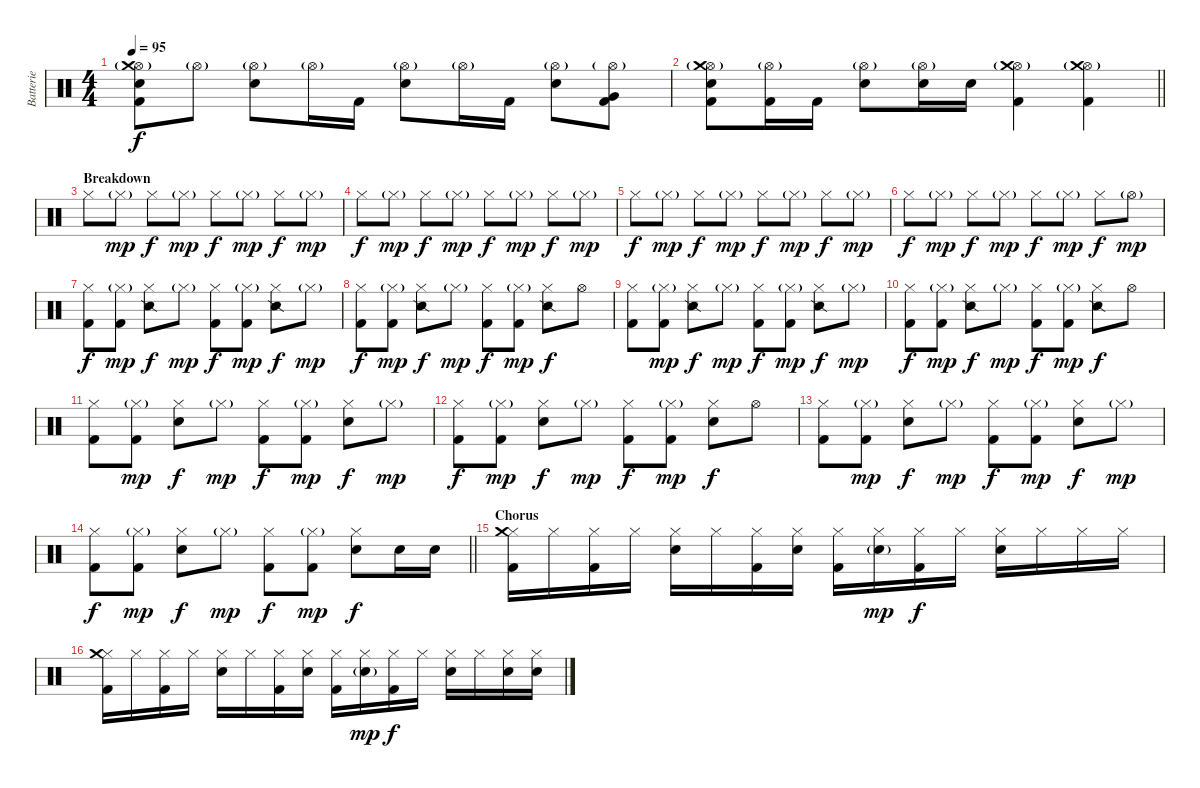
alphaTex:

\track ("Batterie" "Batterie") {instrument percussion}
\staff {score}
\articulation defaults
\ts (4 4)
\tempo 95
\clef neutral
\ks c
("Hi-Hat (open)"{g} "Crash medium (hit)" "Electric Snare (hit)" "Kick (hit) 2").8{dy f} "Hi-Hat (open)"{g}.8 ("Hi-Hat (open)"{g} "Electric Snare (hit)").8 "Hi-Hat (open)"{g}.16 "Kick (hit) 2".16 ("Hi-Hat (open)"{g} "Electric Snare (hit)").8 "Hi-Hat (open)"{g}.16 "Kick (hit) 2".16 ("Hi-Hat (open)"{g} "Electric Snare (hit)").8 ("Hi-Hat (open)"{g} "Very Low Tom (hit)" "Kick (hit) 2").8 |
\barLineRight lightlight
("Hi-Hat (open)"{g} "Crash medium (hit)" "Electric Snare (hit)" "Kick (hit) 2").8 ("Hi-Hat (open)"{g} "Kick (hit) 2").16 "Kick (hit) 2".16 ("Hi-Hat (open)"{g} "Electric Snare (hit)").8 ("Hi-Hat (open)"{g} "Electric Snare (hit)").16 "Electric Snare (hit)".16 ("Hi-Hat (open)"{g} "Crash medium (hit)" "Kick (hit) 2").4 ("Hi-Hat (open)"{g} "Crash medium (hit)" "Kick (hit) 2").4 |
\section ("" "Breakdown")
"Hi-Hat (closed)".8 "Hi-Hat (closed)"{g}.8{dy mp} "Hi-Hat (closed)".8{dy f} "Hi-Hat (closed)"{g}.8{dy mp} "Hi-Hat (closed)".8{dy f} "Hi-Hat (closed)"{g}.8{dy mp} "Hi-Hat (closed)".8{dy f} "Hi-Hat (closed)"{g}.8{dy mp} |
"Hi-Hat (closed)".8{dy f} "Hi-Hat (closed)"{g}.8{dy mp} "Hi-Hat (closed)".8{dy f} "Hi-Hat (closed)"{g}.8{dy mp} "Hi-Hat (closed)".8{dy f} "Hi-Hat (closed)"{g}.8{dy mp} "Hi-Hat (closed)".8{dy f} "Hi-Hat (closed)"{g}.8{dy mp} |
"Hi-Hat (closed)".8{dy f} "Hi-Hat (closed)"{g}.8{dy mp} "Hi-Hat (closed)".8{dy f} "Hi-Hat (closed)"{g}.8{dy mp} "Hi-Hat (closed)".8{dy f} "Hi-Hat (closed)"{g}.8{dy mp} "Hi-Hat (closed)".8{dy f} "Hi-Hat (closed)"{g}.8{dy mp} |
"Hi-Hat (closed)".8{dy f} "Hi-Hat (closed)"{g}.8{dy mp} "Hi-Hat (closed)".8{dy f} "Hi-Hat (closed)"{g}.8{dy mp} "Hi-Hat (closed)".8{dy f} "Hi-Hat (closed)"{g}.8{dy mp} "Hi-Hat (closed)".8{dy f} "Hi-Hat (open)"{g}.8{dy mp} |
("Hi-Hat (closed)" "Kick (hit) 2").8{dy f} ("Hi-Hat (closed)"{g} "Kick (hit) 2").8{dy mp} ("Hi-Hat (closed)" "Snare (side stick) 2").8{dy f} "Hi-Hat (closed)"{g}.8{dy mp} ("Hi-Hat (closed)" "Kick (hit) 2").8{dy f} ("Hi-Hat (closed)"{g} "Kick (hit) 2").8{dy mp} ("Hi-Hat (closed)" "Snare (side stick) 2").8{dy f} "Hi-Hat (closed)"{g}.8{dy mp} |
("Hi-Hat (closed)" "Kick (hit) 2").8{dy f} ("Hi-Hat (closed)"{g} "Kick (hit) 2").8{dy mp} ("Hi-Hat (closed)" "Snare (side stick) 2").8{dy f} "Hi-Hat (closed)"{g}.8{dy mp} ("Hi-Hat (closed)" "Kick (hit) 2").8{dy f} ("Hi-Hat (closed)"{g} "Kick (hit) 2").8{dy mp} ("Hi-Hat (closed)" "Snare (side stick) 2").8{dy f} "Hi-Hat (open)".8 |
("Hi-Hat (closed)" "Kick (hit) 2").8 ("Hi-Hat (closed)"{g} "Kick (hit) 2").8{dy mp} ("Hi-Hat (closed)" "Snare (side stick) 2").8{dy f} "Hi-Hat (closed)"{g}.8{dy mp} ("Hi-Hat (closed)" "Kick (hit) 2").8{dy f} ("Hi-Hat (closed)"{g} "Kick (hit) 2").8{dy mp} ("Hi-Hat (closed)" "Snare (side stick) 2").8{dy f} "Hi-Hat (closed)"{g}.8{dy mp} |
("Hi-Hat (closed)" "Kick (hit) 2").8{dy f} ("Hi-Hat (closed)"{g} "Kick (hit) 2").8{dy mp} ("Hi-Hat (closed)" "Snare (side stick) 2").8{dy f} "Hi-Hat (closed)"{g}.8{dy mp} ("Hi-Hat (closed)" "Kick (hit) 2").8{dy f} ("Hi-Hat (closed)"{g} "Kick (hit) 2").8{dy mp} ("Hi-Hat (closed)" "Snare (side stick) 2").8{dy f} "Hi-Hat (open)".8 |
("Hi-Hat (closed)" "Kick (hit) 2").8 ("Hi-Hat (closed)"{g} "Kick (hit) 2").8{dy mp} ("Hi-Hat (closed)" "Electric Snare (hit)").8{dy f} "Hi-Hat (closed)"{g}.8{dy mp} ("Hi-Hat (closed)" "Kick (hit) 2").8{dy f} ("Hi-Hat (closed)"{g} "Kick (hit) 2").8{dy mp} ("Hi-Hat (closed)" "Electric Snare (hit)").8{dy f} "Hi-Hat (closed)"{g}.8{dy mp} |
("Hi-Hat (closed)" "Kick (hit) 2").8{dy f} ("Hi-Hat (closed)"{g} "Kick (hit) 2").8{dy mp} ("Hi-Hat (closed)" "Electric Snare (hit)").8{dy f} "Hi-Hat (closed)"{g}.8{dy mp} ("Hi-Hat (closed)" "Kick (hit) 2").8{dy f} ("Hi-Hat (closed)"{g} "Kick (hit) 2").8{dy mp} ("Hi-Hat (closed)" "Electric Snare (hit)").8{dy f} "Hi-Hat (open)".8 |
("Hi-Hat (closed)" "Kick (hit) 2").8 ("Hi-Hat (closed)"{g} "Kick (hit) 2").8{dy mp} ("Hi-Hat (closed)" "Electric Snare (hit)").8{dy f} "Hi-Hat (closed)"{g}.8{dy mp} ("Hi-Hat (closed)" "Kick (hit) 2").8{dy f} ("Hi-Hat (closed)"{g} "Kick (hit) 2").8{dy mp} ("Hi-Hat (closed)" "Electric Snare (hit)").8{dy f} "Hi-Hat (closed)"{g}.8{dy mp} |
\barLineRight lightlight
("Hi-Hat (closed)" "Kick (hit) 2").8{dy f} ("Hi-Hat (closed)"{g} "Kick (hit) 2").8{dy mp} ("Hi-Hat (closed)" "Electric Snare (hit)").8{dy f} "Hi-Hat (closed)"{g}.8{dy mp} ("Hi-Hat (closed)" "Kick (hit) 2").8{dy f} ("Hi-Hat (closed)"{g} "Kick (hit) 2").8{dy mp} ("Hi-Hat (closed)" "Electric Snare (hit)").8{dy f} "Electric Snare (hit)".16 "Electric Snare (hit)".16 |
\section ("" "Chorus")
("Hi-Hat (closed)" "Crash medium (hit)" "Kick (hit) 2").16 "Hi-Hat (closed)".16 ("Hi-Hat (closed)" "Kick (hit) 2").16 "Hi-Hat (closed)".16 ("Hi-Hat (closed)" "Electric Snare (hit)").16 "Hi-Hat (closed)".16 ("Hi-Hat (closed)" "Kick (hit) 2").16 ("Hi-Hat (closed)" "Electric Snare (hit)").16 ("Hi-Hat (closed)" "Kick (hit) 2").16 ("Hi-Hat (closed)" "Electric Snare (hit)"{g}).16{dy mp} ("Hi-Hat (closed)" "Kick (hit) 2").16{dy f} "Hi-Hat (closed)".16 ("Hi-Hat (closed)" "Electric Snare (hit)").16 "Hi-Hat (closed)".16 "Hi-Hat (closed)".16 "Hi-Hat (closed)".16 |
("Hi-Hat (closed)" "Crash medium (hit)" "Kick (hit) 2").16 "Hi-Hat (closed)".16 ("Hi-Hat (closed)" "Kick (hit) 2").16 "Hi-Hat (closed)".16 ("Hi-Hat (closed)" "Electric Snare (hit)").16 "Hi-Hat (closed)".16 ("Hi-Hat (closed)" "Kick (hit) 2").16 ("Hi-Hat (closed)" "Electric Snare (hit)").16 ("Hi-Hat (closed)" "Kick (hit) 2").16 ("Hi-Hat (closed)" "Electric Snare (hit)"{g}).16{dy mp} ("Hi-Hat (closed)" "Kick (hit) 2").16{dy f} "Hi-Hat (closed)".16 ("Hi-Hat (closed)" "Electric Snare (hit)").16 "Hi-Hat (closed)".16 ("Hi-Hat (closed)" "Electric Snare (hit)").16 ("Hi-Hat (closed)" "Electric Snare (hit)").16
